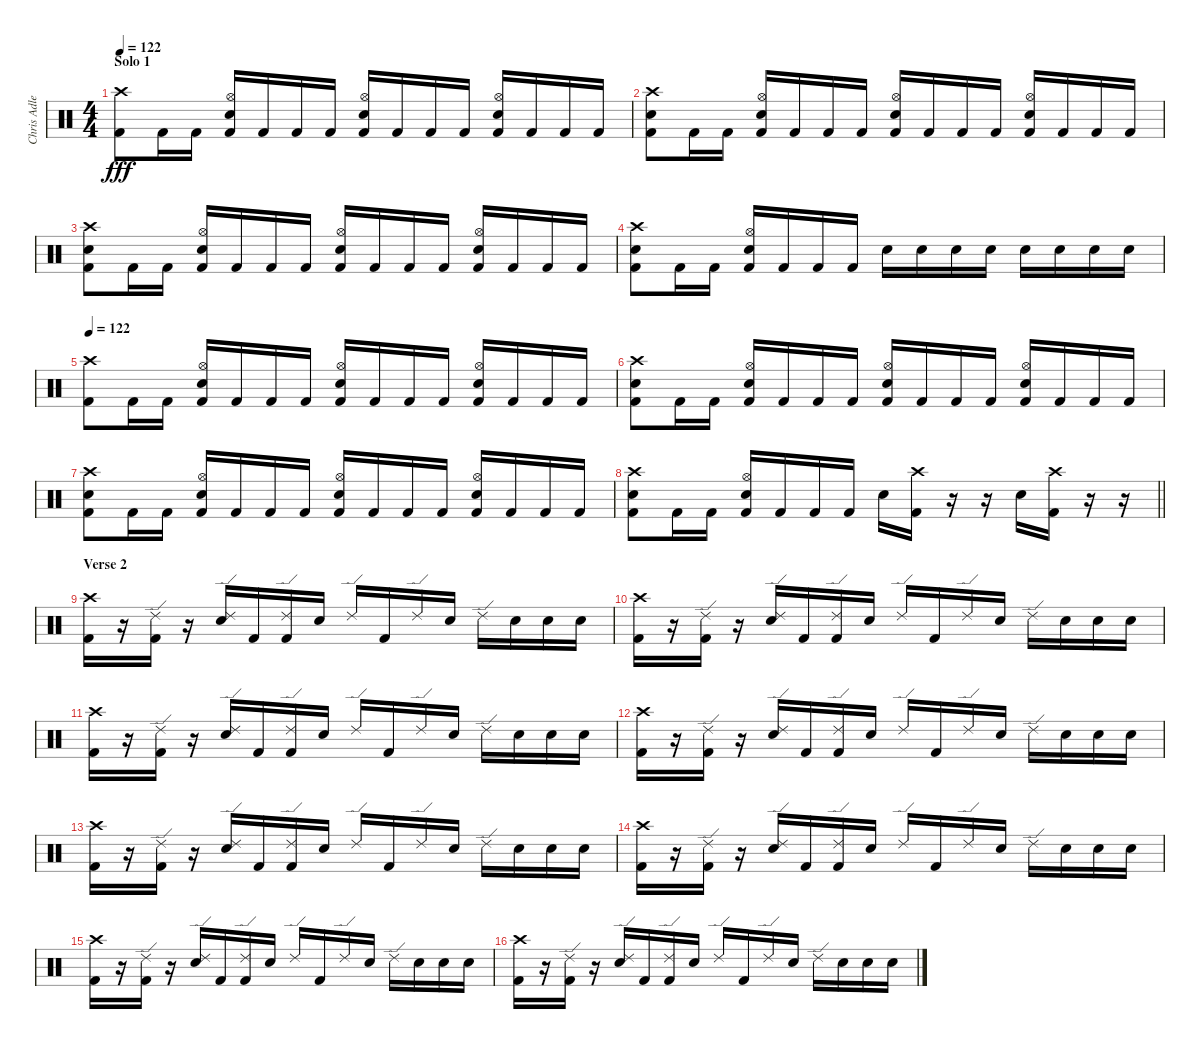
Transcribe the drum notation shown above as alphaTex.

\track ("Chris Adler" "Chris Adle") {instrument percussion}
\staff {score}
\articulation defaults
\ts (4 4)
\section ("" "Solo 1")
\tempo 122
\clef neutral
\ks c
("Crash high (hit)" "Kick (hit) 2").8{dy fff} "Kick (hit) 2".16 "Kick (hit) 2".16 ("Hi-Hat (open)" "Snare (hit) 2" "Kick (hit) 2").16 "Kick (hit) 2".16 "Kick (hit) 2".16 "Kick (hit) 2".16 ("Hi-Hat (open)" "Snare (hit) 2" "Kick (hit) 2").16 "Kick (hit) 2".16 "Kick (hit) 2".16 "Kick (hit) 2".16 ("Hi-Hat (open)" "Snare (hit) 2" "Kick (hit) 2").16 "Kick (hit) 2".16 "Kick (hit) 2".16 "Kick (hit) 2".16 |
("Crash high (hit)" "Snare (hit) 2" "Kick (hit) 2").8 "Kick (hit) 2".16 "Kick (hit) 2".16 ("Hi-Hat (open)" "Snare (hit) 2" "Kick (hit) 2").16 "Kick (hit) 2".16 "Kick (hit) 2".16 "Kick (hit) 2".16 ("Hi-Hat (open)" "Snare (hit) 2" "Kick (hit) 2").16 "Kick (hit) 2".16 "Kick (hit) 2".16 "Kick (hit) 2".16 ("Hi-Hat (open)" "Snare (hit) 2" "Kick (hit) 2").16 "Kick (hit) 2".16 "Kick (hit) 2".16 "Kick (hit) 2".16 |
("Crash high (hit)" "Snare (hit) 2" "Kick (hit) 2").8 "Kick (hit) 2".16 "Kick (hit) 2".16 ("Hi-Hat (open)" "Snare (hit) 2" "Kick (hit) 2").16 "Kick (hit) 2".16 "Kick (hit) 2".16 "Kick (hit) 2".16 ("Hi-Hat (open)" "Snare (hit) 2" "Kick (hit) 2").16 "Kick (hit) 2".16 "Kick (hit) 2".16 "Kick (hit) 2".16 ("Hi-Hat (open)" "Snare (hit) 2" "Kick (hit) 2").16 "Kick (hit) 2".16 "Kick (hit) 2".16 "Kick (hit) 2".16 |
("Crash high (hit)" "Snare (hit) 2" "Kick (hit) 2").8 "Kick (hit) 2".16 "Kick (hit) 2".16 ("Hi-Hat (open)" "Snare (hit) 2" "Kick (hit) 2").16 "Kick (hit) 2".16 "Kick (hit) 2".16 "Kick (hit) 2".16 "Snare (hit) 2".16 "Snare (hit) 2".16 "Snare (hit) 2".16 "Snare (hit) 2".16 "Snare (hit) 2".16 "Snare (hit) 2".16 "Snare (hit) 2".16 "Snare (hit) 2".16 |
\tempo 122
("Crash high (hit)" "Kick (hit) 2").8 "Kick (hit) 2".16 "Kick (hit) 2".16 ("Hi-Hat (open)" "Snare (hit) 2" "Kick (hit) 2").16 "Kick (hit) 2".16 "Kick (hit) 2".16 "Kick (hit) 2".16 ("Hi-Hat (open)" "Snare (hit) 2" "Kick (hit) 2").16 "Kick (hit) 2".16 "Kick (hit) 2".16 "Kick (hit) 2".16 ("Hi-Hat (open)" "Snare (hit) 2" "Kick (hit) 2").16 "Kick (hit) 2".16 "Kick (hit) 2".16 "Kick (hit) 2".16 |
("Crash high (hit)" "Snare (hit) 2" "Kick (hit) 2").8 "Kick (hit) 2".16 "Kick (hit) 2".16 ("Hi-Hat (open)" "Snare (hit) 2" "Kick (hit) 2").16 "Kick (hit) 2".16 "Kick (hit) 2".16 "Kick (hit) 2".16 ("Hi-Hat (open)" "Snare (hit) 2" "Kick (hit) 2").16 "Kick (hit) 2".16 "Kick (hit) 2".16 "Kick (hit) 2".16 ("Hi-Hat (open)" "Snare (hit) 2" "Kick (hit) 2").16 "Kick (hit) 2".16 "Kick (hit) 2".16 "Kick (hit) 2".16 |
("Crash high (hit)" "Snare (hit) 2" "Kick (hit) 2").8 "Kick (hit) 2".16 "Kick (hit) 2".16 ("Hi-Hat (open)" "Snare (hit) 2" "Kick (hit) 2").16 "Kick (hit) 2".16 "Kick (hit) 2".16 "Kick (hit) 2".16 ("Hi-Hat (open)" "Snare (hit) 2" "Kick (hit) 2").16 "Kick (hit) 2".16 "Kick (hit) 2".16 "Kick (hit) 2".16 ("Hi-Hat (open)" "Snare (hit) 2" "Kick (hit) 2").16 "Kick (hit) 2".16 "Kick (hit) 2".16 "Kick (hit) 2".16 |
\barLineRight lightlight
("Crash high (hit)" "Snare (hit) 2" "Kick (hit) 2").8 "Kick (hit) 2".16 "Kick (hit) 2".16 ("Hi-Hat (open)" "Snare (hit) 2" "Kick (hit) 2").16 "Kick (hit) 2".16 "Kick (hit) 2".16 "Kick (hit) 2".16 "Snare (hit) 2".16 ("Crash high (hit)" "Kick (hit) 2").16 r.16 r.16 "Snare (hit) 2".16 ("Crash high (hit)" "Kick (hit) 2").16 r.16 r.16 |
\section ("" "Verse 2")
("Crash high (hit)" "Kick (hit) 2").16 r.16 ("Ride (edge) 2" "Kick (hit) 2").16 r.16 ("Ride (edge) 2" "Snare (hit) 2").16 "Kick (hit) 2".16 ("Ride (edge) 2" "Kick (hit) 2").16 "Snare (hit) 2".16 "Ride (edge) 2".16 "Kick (hit) 2".16 "Ride (edge) 2".16 "Snare (hit) 2".16 "Ride (edge) 2".16 "Snare (hit) 2".16 "Snare (hit) 2".16 "Snare (hit) 2".16 |
("Crash high (hit)" "Kick (hit) 2").16 r.16 ("Ride (edge) 2" "Kick (hit) 2").16 r.16 ("Ride (edge) 2" "Snare (hit) 2").16 "Kick (hit) 2".16 ("Ride (edge) 2" "Kick (hit) 2").16 "Snare (hit) 2".16 "Ride (edge) 2".16 "Kick (hit) 2".16 "Ride (edge) 2".16 "Snare (hit) 2".16 "Ride (edge) 2".16 "Snare (hit) 2".16 "Snare (hit) 2".16 "Snare (hit) 2".16 |
("Crash high (hit)" "Kick (hit) 2").16 r.16 ("Ride (edge) 2" "Kick (hit) 2").16 r.16 ("Ride (edge) 2" "Snare (hit) 2").16 "Kick (hit) 2".16 ("Ride (edge) 2" "Kick (hit) 2").16 "Snare (hit) 2".16 "Ride (edge) 2".16 "Kick (hit) 2".16 "Ride (edge) 2".16 "Snare (hit) 2".16 "Ride (edge) 2".16 "Snare (hit) 2".16 "Snare (hit) 2".16 "Snare (hit) 2".16 |
("Crash high (hit)" "Kick (hit) 2").16 r.16 ("Ride (edge) 2" "Kick (hit) 2").16 r.16 ("Ride (edge) 2" "Snare (hit) 2").16 "Kick (hit) 2".16 ("Ride (edge) 2" "Kick (hit) 2").16 "Snare (hit) 2".16 "Ride (edge) 2".16 "Kick (hit) 2".16 "Ride (edge) 2".16 "Snare (hit) 2".16 "Ride (edge) 2".16 "Snare (hit) 2".16 "Snare (hit) 2".16 "Snare (hit) 2".16 |
("Crash high (hit)" "Kick (hit) 2").16 r.16 ("Ride (edge) 2" "Kick (hit) 2").16 r.16 ("Ride (edge) 2" "Snare (hit) 2").16 "Kick (hit) 2".16 ("Ride (edge) 2" "Kick (hit) 2").16 "Snare (hit) 2".16 "Ride (edge) 2".16 "Kick (hit) 2".16 "Ride (edge) 2".16 "Snare (hit) 2".16 "Ride (edge) 2".16 "Snare (hit) 2".16 "Snare (hit) 2".16 "Snare (hit) 2".16 |
("Crash high (hit)" "Kick (hit) 2").16 r.16 ("Ride (edge) 2" "Kick (hit) 2").16 r.16 ("Ride (edge) 2" "Snare (hit) 2").16 "Kick (hit) 2".16 ("Ride (edge) 2" "Kick (hit) 2").16 "Snare (hit) 2".16 "Ride (edge) 2".16 "Kick (hit) 2".16 "Ride (edge) 2".16 "Snare (hit) 2".16 "Ride (edge) 2".16 "Snare (hit) 2".16 "Snare (hit) 2".16 "Snare (hit) 2".16 |
("Crash high (hit)" "Kick (hit) 2").16 r.16 ("Ride (edge) 2" "Kick (hit) 2").16 r.16 ("Ride (edge) 2" "Snare (hit) 2").16 "Kick (hit) 2".16 ("Ride (edge) 2" "Kick (hit) 2").16 "Snare (hit) 2".16 "Ride (edge) 2".16 "Kick (hit) 2".16 "Ride (edge) 2".16 "Snare (hit) 2".16 "Ride (edge) 2".16 "Snare (hit) 2".16 "Snare (hit) 2".16 "Snare (hit) 2".16 |
("Crash high (hit)" "Kick (hit) 2").16 r.16 ("Ride (edge) 2" "Kick (hit) 2").16 r.16 ("Ride (edge) 2" "Snare (hit) 2").16 "Kick (hit) 2".16 ("Ride (edge) 2" "Kick (hit) 2").16 "Snare (hit) 2".16 "Ride (edge) 2".16 "Kick (hit) 2".16 "Ride (edge) 2".16 "Snare (hit) 2".16 "Ride (edge) 2".16 "Snare (hit) 2".16 "Snare (hit) 2".16 "Snare (hit) 2".16
